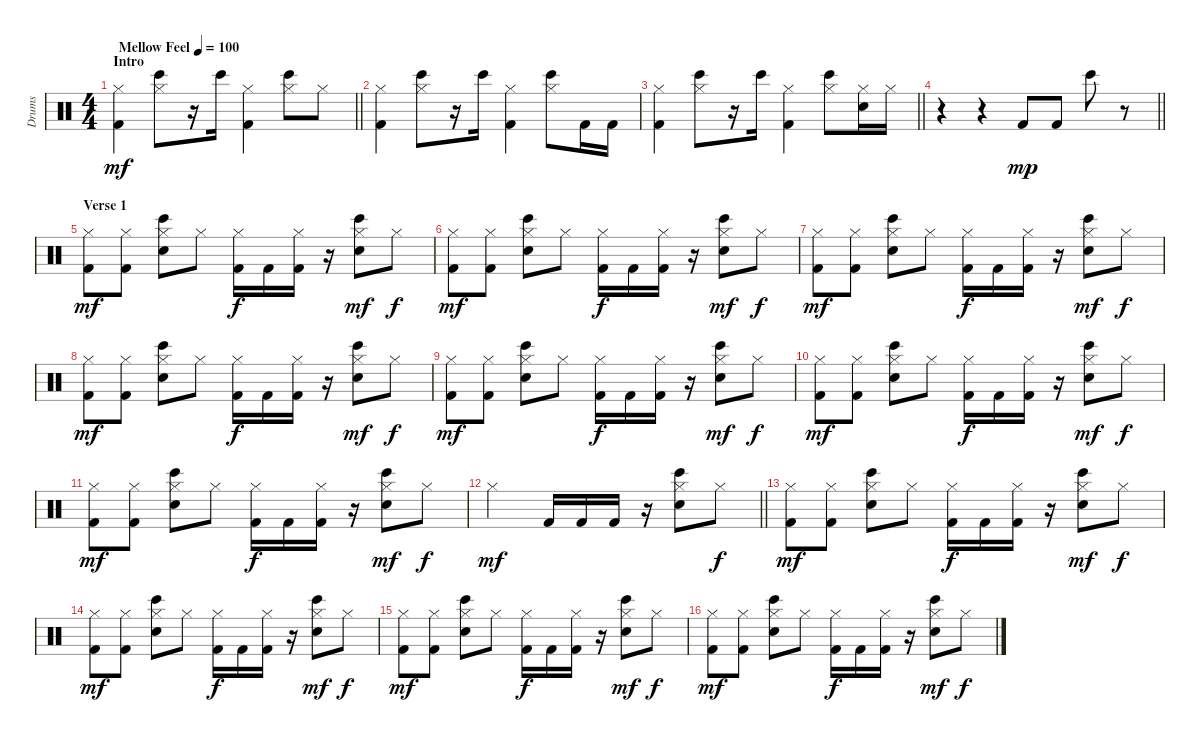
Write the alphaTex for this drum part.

\track ("Drums" "Drums") {instrument percussion}
\staff {score}
\articulation defaults
\ts (4 4)
\section ("" "Intro")
\tempo (100 "Mellow Feel")
\clef neutral
\barLineRight lightlight
\ks c
("Hi-Hat (closed)" "Kick (hit) 2").4{dy mf} ("Hi-Hat (closed)" "Bongo High (hit)").8 r.16 "Bongo High (hit)".16 ("Hi-Hat (closed)" "Kick (hit) 2").4 ("Hi-Hat (closed)" "Bongo High (hit)").8 "Hi-Hat (closed)".8 |
("Hi-Hat (closed)" "Kick (hit) 2").4 ("Hi-Hat (closed)" "Bongo High (hit)").8 r.16 "Bongo High (hit)".16 ("Hi-Hat (closed)" "Kick (hit) 2").4 ("Hi-Hat (closed)" "Bongo High (hit)").8 "Kick (hit) 2".16 "Kick (hit) 2".16 |
\barLineRight lightlight
("Hi-Hat (closed)" "Kick (hit) 2").4 ("Hi-Hat (closed)" "Bongo High (hit)").8 r.16 "Bongo High (hit)".16 ("Hi-Hat (closed)" "Kick (hit) 2").4 ("Hi-Hat (closed)" "Bongo High (hit)").8 ("Hi-Hat (closed)" "Snare (hit)").16 "Hi-Hat (closed)".16 |
\barLineRight lightlight
r.4 r.4 "Kick (hit) 2".8{dy mp} "Kick (hit) 2".8 "Bongo High (hit)".8 r.8 |
\section ("" "Verse 1")
("Hi-Hat (closed)" "Kick (hit) 2").8{dy mf} ("Hi-Hat (closed)" "Kick (hit) 2").8 ("Hi-Hat (closed)" "Bongo High (hit)" "Snare (hit) 2").8 "Hi-Hat (closed)".8 ("Hi-Hat (closed)" "Kick (hit) 2").16{dy f} "Kick (hit) 2".16 ("Hi-Hat (closed)" "Kick (hit) 2").16 r.16 ("Hi-Hat (closed)" "Bongo High (hit)" "Snare (hit) 2").8{dy mf} "Hi-Hat (closed)".8{dy f} |
("Hi-Hat (closed)" "Kick (hit) 2").8{dy mf} ("Hi-Hat (closed)" "Kick (hit) 2").8 ("Hi-Hat (closed)" "Bongo High (hit)" "Snare (hit) 2").8 "Hi-Hat (closed)".8 ("Hi-Hat (closed)" "Kick (hit) 2").16{dy f} "Kick (hit) 2".16 ("Hi-Hat (closed)" "Kick (hit) 2").16 r.16 ("Hi-Hat (closed)" "Bongo High (hit)" "Snare (hit) 2").8{dy mf} "Hi-Hat (closed)".8{dy f} |
("Hi-Hat (closed)" "Kick (hit) 2").8{dy mf} ("Hi-Hat (closed)" "Kick (hit) 2").8 ("Hi-Hat (closed)" "Bongo High (hit)" "Snare (hit) 2").8 "Hi-Hat (closed)".8 ("Hi-Hat (closed)" "Kick (hit) 2").16{dy f} "Kick (hit) 2".16 ("Hi-Hat (closed)" "Kick (hit) 2").16 r.16 ("Hi-Hat (closed)" "Bongo High (hit)" "Snare (hit) 2").8{dy mf} "Hi-Hat (closed)".8{dy f} |
("Hi-Hat (closed)" "Kick (hit) 2").8{dy mf} ("Hi-Hat (closed)" "Kick (hit) 2").8 ("Hi-Hat (closed)" "Bongo High (hit)" "Snare (hit) 2").8 "Hi-Hat (closed)".8 ("Hi-Hat (closed)" "Kick (hit) 2").16{dy f} "Kick (hit) 2".16 ("Hi-Hat (closed)" "Kick (hit) 2").16 r.16 ("Hi-Hat (closed)" "Bongo High (hit)" "Snare (hit) 2").8{dy mf} "Hi-Hat (closed)".8{dy f} |
("Hi-Hat (closed)" "Kick (hit) 2").8{dy mf} ("Hi-Hat (closed)" "Kick (hit) 2").8 ("Hi-Hat (closed)" "Bongo High (hit)" "Snare (hit) 2").8 "Hi-Hat (closed)".8 ("Hi-Hat (closed)" "Kick (hit) 2").16{dy f} "Kick (hit) 2".16 ("Hi-Hat (closed)" "Kick (hit) 2").16 r.16 ("Hi-Hat (closed)" "Bongo High (hit)" "Snare (hit) 2").8{dy mf} "Hi-Hat (closed)".8{dy f} |
("Hi-Hat (closed)" "Kick (hit) 2").8{dy mf} ("Hi-Hat (closed)" "Kick (hit) 2").8 ("Hi-Hat (closed)" "Bongo High (hit)" "Snare (hit) 2").8 "Hi-Hat (closed)".8 ("Hi-Hat (closed)" "Kick (hit) 2").16{dy f} "Kick (hit) 2".16 ("Hi-Hat (closed)" "Kick (hit) 2").16 r.16 ("Hi-Hat (closed)" "Bongo High (hit)" "Snare (hit) 2").8{dy mf} "Hi-Hat (closed)".8{dy f} |
("Hi-Hat (closed)" "Kick (hit) 2").8{dy mf} ("Hi-Hat (closed)" "Kick (hit) 2").8 ("Hi-Hat (closed)" "Bongo High (hit)" "Snare (hit) 2").8 "Hi-Hat (closed)".8 ("Hi-Hat (closed)" "Kick (hit) 2").16{dy f} "Kick (hit) 2".16 ("Hi-Hat (closed)" "Kick (hit) 2").16 r.16 ("Hi-Hat (closed)" "Bongo High (hit)" "Snare (hit) 2").8{dy mf} "Hi-Hat (closed)".8{dy f} |
\barLineRight lightlight "Hi-Hat (closed)".2{dy mf} "Kick (hit) 2".16 "Kick (hit) 2".16 "Kick (hit) 2".16
r.16 ("Hi-Hat (closed)" "Bongo High (hit)" "Snare (hit) 2").8 "Hi-Hat (closed)".8{dy f} |
("Hi-Hat (closed)" "Kick (hit) 2").8{dy mf} ("Hi-Hat (closed)" "Kick (hit) 2").8 ("Hi-Hat (closed)" "Bongo High (hit)" "Snare (hit) 2").8 "Hi-Hat (closed)".8 ("Hi-Hat (closed)" "Kick (hit) 2").16{dy f} "Kick (hit) 2".16 ("Hi-Hat (closed)" "Kick (hit) 2").16 r.16 ("Hi-Hat (closed)" "Bongo High (hit)" "Snare (hit) 2").8{dy mf} "Hi-Hat (closed)".8{dy f} |
("Hi-Hat (closed)" "Kick (hit) 2").8{dy mf} ("Hi-Hat (closed)" "Kick (hit) 2").8 ("Hi-Hat (closed)" "Bongo High (hit)" "Snare (hit) 2").8 "Hi-Hat (closed)".8 ("Hi-Hat (closed)" "Kick (hit) 2").16{dy f} "Kick (hit) 2".16 ("Hi-Hat (closed)" "Kick (hit) 2").16 r.16 ("Hi-Hat (closed)" "Bongo High (hit)" "Snare (hit) 2").8{dy mf} "Hi-Hat (closed)".8{dy f} |
("Hi-Hat (closed)" "Kick (hit) 2").8{dy mf} ("Hi-Hat (closed)" "Kick (hit) 2").8 ("Hi-Hat (closed)" "Bongo High (hit)" "Snare (hit) 2").8 "Hi-Hat (closed)".8 ("Hi-Hat (closed)" "Kick (hit) 2").16{dy f} "Kick (hit) 2".16 ("Hi-Hat (closed)" "Kick (hit) 2").16 r.16 ("Hi-Hat (closed)" "Bongo High (hit)" "Snare (hit) 2").8{dy mf} "Hi-Hat (closed)".8{dy f} |
("Hi-Hat (closed)" "Kick (hit) 2").8{dy mf} ("Hi-Hat (closed)" "Kick (hit) 2").8 ("Hi-Hat (closed)" "Bongo High (hit)" "Snare (hit) 2").8 "Hi-Hat (closed)".8 ("Hi-Hat (closed)" "Kick (hit) 2").16{dy f} "Kick (hit) 2".16 ("Hi-Hat (closed)" "Kick (hit) 2").16 r.16 ("Hi-Hat (closed)" "Bongo High (hit)" "Snare (hit) 2").8{dy mf} "Hi-Hat (closed)".8{dy f}
